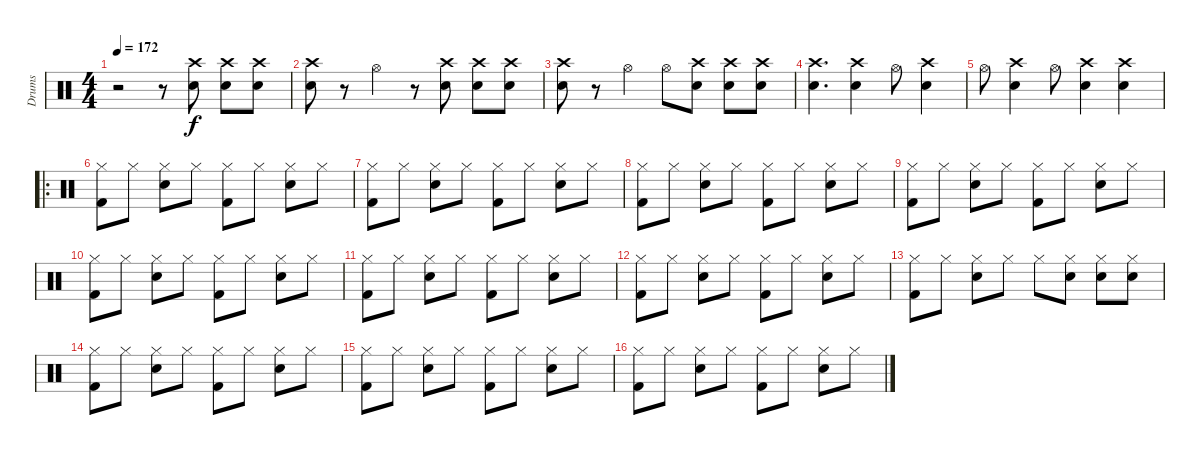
\track ("Drums" "Drums") {instrument percussion}
\staff {score}
\articulation defaults
\ts (4 4)
\tempo 172
\clef neutral
\ks c
r.2{dy f} r.8 ("Crash high (hit)" "Snare (hit) 2").8 ("Crash high (hit)" "Snare (hit) 2").8 ("Crash high (hit)" "Snare (hit) 2").8 |
("Crash high (hit)" "Snare (hit) 2").8 r.8 "Hi-Hat (open)".4 r.8 ("Crash high (hit)" "Snare (hit) 2").8 ("Crash high (hit)" "Snare (hit) 2").8 ("Crash high (hit)" "Snare (hit) 2").8 |
("Crash high (hit)" "Snare (hit) 2").8 r.8 "Hi-Hat (open)".4 "Hi-Hat (open)".8 ("Crash high (hit)" "Snare (hit) 2").8 ("Crash high (hit)" "Snare (hit) 2").8 ("Crash high (hit)" "Snare (hit) 2").8 |
("Crash high (hit)" "Snare (hit) 2").4{d} ("Crash high (hit)" "Snare (hit) 2").4 "Hi-Hat (open)".8 ("Crash high (hit)" "Snare (hit) 2").4 |
"Hi-Hat (open)".8 ("Crash high (hit)" "Snare (hit) 2").4 "Hi-Hat (open)".8 ("Crash high (hit)" "Snare (hit) 2").4 ("Crash high (hit)" "Snare (hit) 2").4 |
\ro
("Hi-Hat (closed)" "Kick (hit) 2").8 "Hi-Hat (closed)".8 ("Hi-Hat (closed)" "Snare (hit) 2").8 "Hi-Hat (closed)".8 ("Hi-Hat (closed)" "Kick (hit) 2").8 "Hi-Hat (closed)".8 ("Hi-Hat (closed)" "Snare (hit) 2").8 "Hi-Hat (closed)".8 |
("Hi-Hat (closed)" "Kick (hit) 2").8 "Hi-Hat (closed)".8 ("Hi-Hat (closed)" "Snare (hit) 2").8 "Hi-Hat (closed)".8 ("Hi-Hat (closed)" "Kick (hit) 2").8 "Hi-Hat (closed)".8 ("Hi-Hat (closed)" "Snare (hit) 2").8 "Hi-Hat (closed)".8 |
("Hi-Hat (closed)" "Kick (hit) 2").8 "Hi-Hat (closed)".8 ("Hi-Hat (closed)" "Snare (hit) 2").8 "Hi-Hat (closed)".8 ("Hi-Hat (closed)" "Kick (hit) 2").8 "Hi-Hat (closed)".8 ("Hi-Hat (closed)" "Snare (hit) 2").8 "Hi-Hat (closed)".8 |
("Hi-Hat (closed)" "Kick (hit) 2").8 "Hi-Hat (closed)".8 ("Hi-Hat (closed)" "Snare (hit) 2").8 "Hi-Hat (closed)".8 ("Hi-Hat (closed)" "Kick (hit) 2").8 "Hi-Hat (closed)".8 ("Hi-Hat (closed)" "Snare (hit) 2").8 "Hi-Hat (closed)".8 |
("Hi-Hat (closed)" "Kick (hit) 2").8 "Hi-Hat (closed)".8 ("Hi-Hat (closed)" "Snare (hit) 2").8 "Hi-Hat (closed)".8 ("Hi-Hat (closed)" "Kick (hit) 2").8 "Hi-Hat (closed)".8 ("Hi-Hat (closed)" "Snare (hit) 2").8 "Hi-Hat (closed)".8 |
("Hi-Hat (closed)" "Kick (hit) 2").8 "Hi-Hat (closed)".8 ("Hi-Hat (closed)" "Snare (hit) 2").8 "Hi-Hat (closed)".8 ("Hi-Hat (closed)" "Kick (hit) 2").8 "Hi-Hat (closed)".8 ("Hi-Hat (closed)" "Snare (hit) 2").8 "Hi-Hat (closed)".8 |
("Hi-Hat (closed)" "Kick (hit) 2").8 "Hi-Hat (closed)".8 ("Hi-Hat (closed)" "Snare (hit) 2").8 "Hi-Hat (closed)".8 ("Hi-Hat (closed)" "Kick (hit) 2").8 "Hi-Hat (closed)".8 ("Hi-Hat (closed)" "Snare (hit) 2").8 "Hi-Hat (closed)".8 |
("Hi-Hat (closed)" "Kick (hit) 2").8 "Hi-Hat (closed)".8 ("Hi-Hat (closed)" "Snare (hit) 2").8 "Hi-Hat (closed)".8 "Hi-Hat (closed)".8 ("Hi-Hat (closed)" "Snare (hit) 2").8 ("Hi-Hat (closed)" "Snare (hit) 2").8 ("Hi-Hat (closed)" "Snare (hit) 2").8 |
("Hi-Hat (closed)" "Kick (hit) 2").8 "Hi-Hat (closed)".8 ("Hi-Hat (closed)" "Snare (hit) 2").8 "Hi-Hat (closed)".8 ("Hi-Hat (closed)" "Kick (hit) 2").8 "Hi-Hat (closed)".8 ("Hi-Hat (closed)" "Snare (hit) 2").8 "Hi-Hat (closed)".8 |
("Hi-Hat (closed)" "Kick (hit) 2").8 "Hi-Hat (closed)".8 ("Hi-Hat (closed)" "Snare (hit) 2").8 "Hi-Hat (closed)".8 ("Hi-Hat (closed)" "Kick (hit) 2").8 "Hi-Hat (closed)".8 ("Hi-Hat (closed)" "Snare (hit) 2").8 "Hi-Hat (closed)".8 |
("Hi-Hat (closed)" "Kick (hit) 2").8 "Hi-Hat (closed)".8 ("Hi-Hat (closed)" "Snare (hit) 2").8 "Hi-Hat (closed)".8 ("Hi-Hat (closed)" "Kick (hit) 2").8 "Hi-Hat (closed)".8 ("Hi-Hat (closed)" "Snare (hit) 2").8 "Hi-Hat (closed)".8
